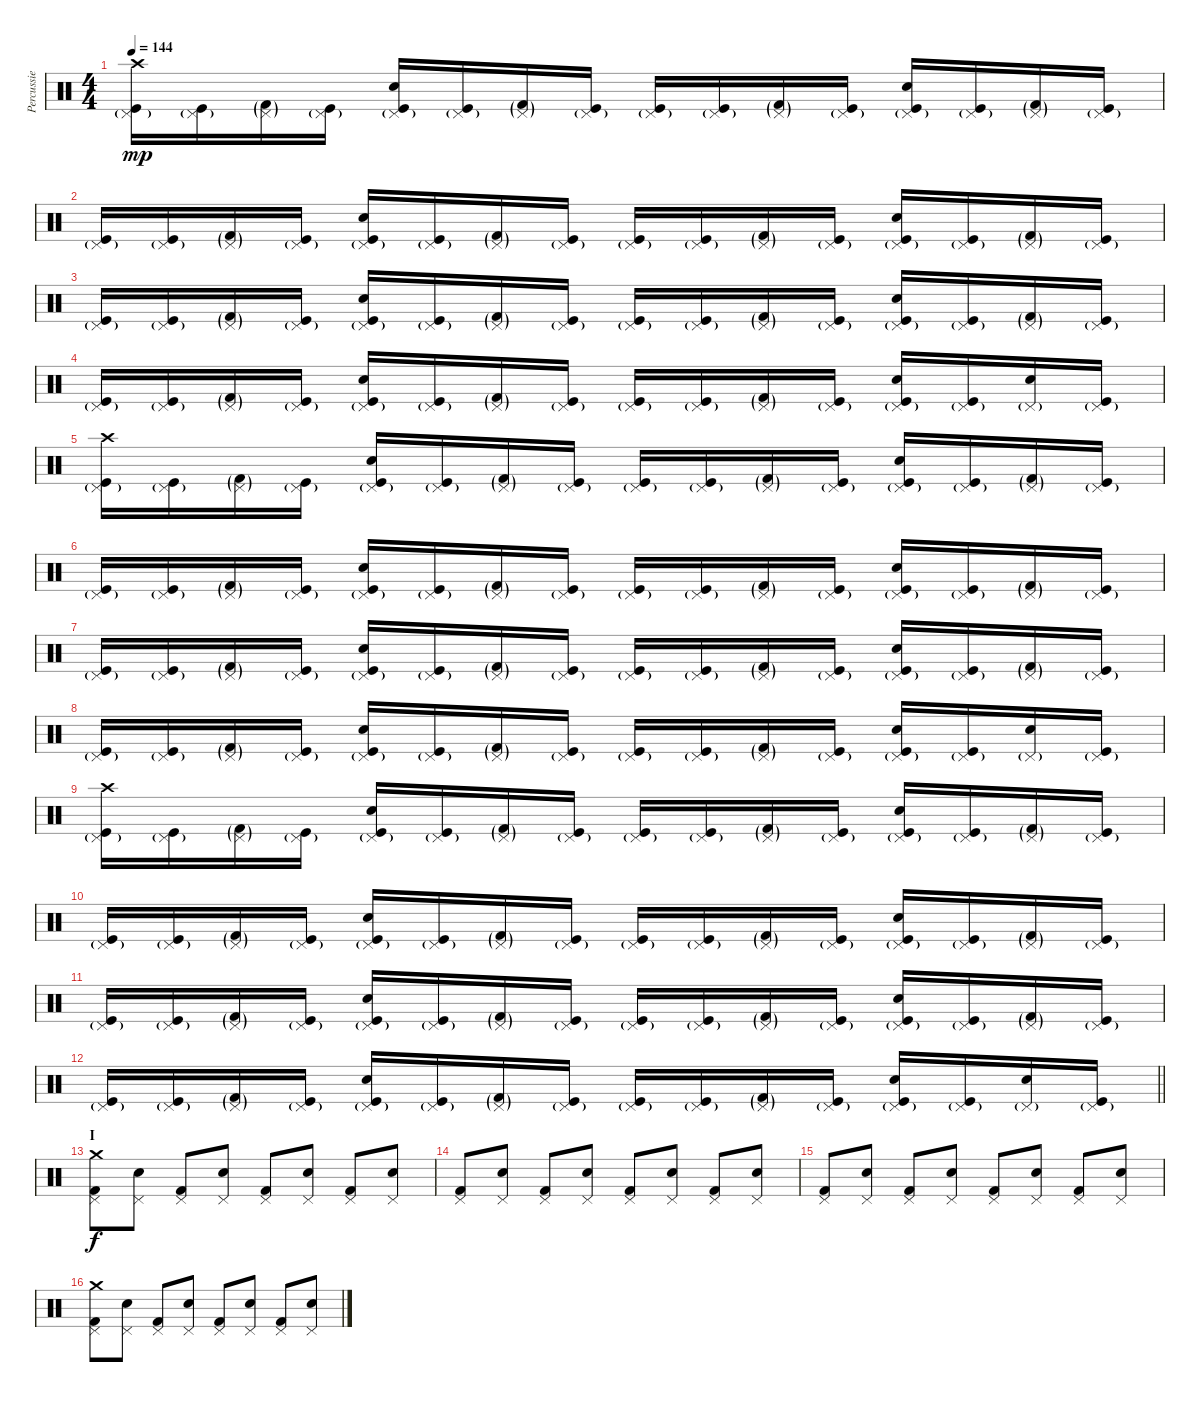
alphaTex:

\track ("Percussie" "Percussie") {instrument percussion}
\staff {score}
\articulation defaults
\ts (4 4)
\tempo 144
\clef neutral
\ks c
("Crash high (hit)" "Kick (hit)" "Pedal Hi-Hat (hit)"{g}).16{dy mp} ("Kick (hit)" "Pedal Hi-Hat (hit)"{g}).16 ("Kick (hit) 2"{g} "Pedal Hi-Hat (hit)"{g}).16 ("Kick (hit)" "Pedal Hi-Hat (hit)"{g}).16 ("Snare (hit) 2" "Kick (hit)" "Pedal Hi-Hat (hit)"{g}).16 ("Kick (hit)" "Pedal Hi-Hat (hit)"{g}).16 ("Kick (hit) 2"{g} "Pedal Hi-Hat (hit)"{g}).16 ("Kick (hit)" "Pedal Hi-Hat (hit)"{g}).16 ("Kick (hit)" "Pedal Hi-Hat (hit)"{g}).16 ("Kick (hit)" "Pedal Hi-Hat (hit)"{g}).16 ("Kick (hit) 2"{g} "Pedal Hi-Hat (hit)"{g}).16 ("Kick (hit)" "Pedal Hi-Hat (hit)"{g}).16 ("Snare (hit) 2" "Kick (hit)" "Pedal Hi-Hat (hit)"{g}).16 ("Kick (hit)" "Pedal Hi-Hat (hit)"{g}).16 ("Kick (hit) 2"{g} "Pedal Hi-Hat (hit)"{g}).16 ("Kick (hit)" "Pedal Hi-Hat (hit)"{g}).16 |
("Kick (hit)" "Pedal Hi-Hat (hit)"{g}).16 ("Kick (hit)" "Pedal Hi-Hat (hit)"{g}).16 ("Kick (hit) 2"{g} "Pedal Hi-Hat (hit)"{g}).16 ("Kick (hit)" "Pedal Hi-Hat (hit)"{g}).16 ("Snare (hit) 2" "Kick (hit)" "Pedal Hi-Hat (hit)"{g}).16 ("Kick (hit)" "Pedal Hi-Hat (hit)"{g}).16 ("Kick (hit) 2"{g} "Pedal Hi-Hat (hit)"{g}).16 ("Kick (hit)" "Pedal Hi-Hat (hit)"{g}).16 ("Kick (hit)" "Pedal Hi-Hat (hit)"{g}).16 ("Kick (hit)" "Pedal Hi-Hat (hit)"{g}).16 ("Kick (hit) 2"{g} "Pedal Hi-Hat (hit)"{g}).16 ("Kick (hit)" "Pedal Hi-Hat (hit)"{g}).16 ("Snare (hit) 2" "Kick (hit)" "Pedal Hi-Hat (hit)"{g}).16 ("Kick (hit)" "Pedal Hi-Hat (hit)"{g}).16 ("Kick (hit) 2"{g} "Pedal Hi-Hat (hit)"{g}).16 ("Kick (hit)" "Pedal Hi-Hat (hit)"{g}).16 |
("Kick (hit)" "Pedal Hi-Hat (hit)"{g}).16 ("Kick (hit)" "Pedal Hi-Hat (hit)"{g}).16 ("Kick (hit) 2"{g} "Pedal Hi-Hat (hit)"{g}).16 ("Kick (hit)" "Pedal Hi-Hat (hit)"{g}).16 ("Snare (hit) 2" "Kick (hit)" "Pedal Hi-Hat (hit)"{g}).16 ("Kick (hit)" "Pedal Hi-Hat (hit)"{g}).16 ("Kick (hit) 2"{g} "Pedal Hi-Hat (hit)"{g}).16 ("Kick (hit)" "Pedal Hi-Hat (hit)"{g}).16 ("Kick (hit)" "Pedal Hi-Hat (hit)"{g}).16 ("Kick (hit)" "Pedal Hi-Hat (hit)"{g}).16 ("Kick (hit) 2"{g} "Pedal Hi-Hat (hit)"{g}).16 ("Kick (hit)" "Pedal Hi-Hat (hit)"{g}).16 ("Snare (hit) 2" "Kick (hit)" "Pedal Hi-Hat (hit)"{g}).16 ("Kick (hit)" "Pedal Hi-Hat (hit)"{g}).16 ("Kick (hit) 2"{g} "Pedal Hi-Hat (hit)"{g}).16 ("Kick (hit)" "Pedal Hi-Hat (hit)"{g}).16 |
("Kick (hit)" "Pedal Hi-Hat (hit)"{g}).16 ("Kick (hit)" "Pedal Hi-Hat (hit)"{g}).16 ("Kick (hit) 2"{g} "Pedal Hi-Hat (hit)"{g}).16 ("Kick (hit)" "Pedal Hi-Hat (hit)"{g}).16 ("Snare (hit) 2" "Kick (hit)" "Pedal Hi-Hat (hit)"{g}).16 ("Kick (hit)" "Pedal Hi-Hat (hit)"{g}).16 ("Kick (hit) 2"{g} "Pedal Hi-Hat (hit)"{g}).16 ("Kick (hit)" "Pedal Hi-Hat (hit)"{g}).16 ("Kick (hit)" "Pedal Hi-Hat (hit)"{g}).16 ("Kick (hit)" "Pedal Hi-Hat (hit)"{g}).16 ("Kick (hit) 2"{g} "Pedal Hi-Hat (hit)"{g}).16 ("Kick (hit)" "Pedal Hi-Hat (hit)"{g}).16 ("Snare (hit) 2" "Kick (hit)" "Pedal Hi-Hat (hit)"{g}).16 ("Kick (hit)" "Pedal Hi-Hat (hit)"{g}).16 ("Snare (hit) 2" "Pedal Hi-Hat (hit)"{g}).16 ("Kick (hit)" "Pedal Hi-Hat (hit)"{g}).16 |
("Crash high (hit)" "Kick (hit)" "Pedal Hi-Hat (hit)"{g}).16 ("Kick (hit)" "Pedal Hi-Hat (hit)"{g}).16 ("Kick (hit) 2"{g} "Pedal Hi-Hat (hit)"{g}).16 ("Kick (hit)" "Pedal Hi-Hat (hit)"{g}).16 ("Snare (hit) 2" "Kick (hit)" "Pedal Hi-Hat (hit)"{g}).16 ("Kick (hit)" "Pedal Hi-Hat (hit)"{g}).16 ("Kick (hit) 2"{g} "Pedal Hi-Hat (hit)"{g}).16 ("Kick (hit)" "Pedal Hi-Hat (hit)"{g}).16 ("Kick (hit)" "Pedal Hi-Hat (hit)"{g}).16 ("Kick (hit)" "Pedal Hi-Hat (hit)"{g}).16 ("Kick (hit) 2"{g} "Pedal Hi-Hat (hit)"{g}).16 ("Kick (hit)" "Pedal Hi-Hat (hit)"{g}).16 ("Snare (hit) 2" "Kick (hit)" "Pedal Hi-Hat (hit)"{g}).16 ("Kick (hit)" "Pedal Hi-Hat (hit)"{g}).16 ("Kick (hit) 2"{g} "Pedal Hi-Hat (hit)"{g}).16 ("Kick (hit)" "Pedal Hi-Hat (hit)"{g}).16 |
("Kick (hit)" "Pedal Hi-Hat (hit)"{g}).16 ("Kick (hit)" "Pedal Hi-Hat (hit)"{g}).16 ("Kick (hit) 2"{g} "Pedal Hi-Hat (hit)"{g}).16 ("Kick (hit)" "Pedal Hi-Hat (hit)"{g}).16 ("Snare (hit) 2" "Kick (hit)" "Pedal Hi-Hat (hit)"{g}).16 ("Kick (hit)" "Pedal Hi-Hat (hit)"{g}).16 ("Kick (hit) 2"{g} "Pedal Hi-Hat (hit)"{g}).16 ("Kick (hit)" "Pedal Hi-Hat (hit)"{g}).16 ("Kick (hit)" "Pedal Hi-Hat (hit)"{g}).16 ("Kick (hit)" "Pedal Hi-Hat (hit)"{g}).16 ("Kick (hit) 2"{g} "Pedal Hi-Hat (hit)"{g}).16 ("Kick (hit)" "Pedal Hi-Hat (hit)"{g}).16 ("Snare (hit) 2" "Kick (hit)" "Pedal Hi-Hat (hit)"{g}).16 ("Kick (hit)" "Pedal Hi-Hat (hit)"{g}).16 ("Kick (hit) 2"{g} "Pedal Hi-Hat (hit)"{g}).16 ("Kick (hit)" "Pedal Hi-Hat (hit)"{g}).16 |
("Kick (hit)" "Pedal Hi-Hat (hit)"{g}).16 ("Kick (hit)" "Pedal Hi-Hat (hit)"{g}).16 ("Kick (hit) 2"{g} "Pedal Hi-Hat (hit)"{g}).16 ("Kick (hit)" "Pedal Hi-Hat (hit)"{g}).16 ("Snare (hit) 2" "Kick (hit)" "Pedal Hi-Hat (hit)"{g}).16 ("Kick (hit)" "Pedal Hi-Hat (hit)"{g}).16 ("Kick (hit) 2"{g} "Pedal Hi-Hat (hit)"{g}).16 ("Kick (hit)" "Pedal Hi-Hat (hit)"{g}).16 ("Kick (hit)" "Pedal Hi-Hat (hit)"{g}).16 ("Kick (hit)" "Pedal Hi-Hat (hit)"{g}).16 ("Kick (hit) 2"{g} "Pedal Hi-Hat (hit)"{g}).16 ("Kick (hit)" "Pedal Hi-Hat (hit)"{g}).16 ("Snare (hit) 2" "Kick (hit)" "Pedal Hi-Hat (hit)"{g}).16 ("Kick (hit)" "Pedal Hi-Hat (hit)"{g}).16 ("Kick (hit) 2"{g} "Pedal Hi-Hat (hit)"{g}).16 ("Kick (hit)" "Pedal Hi-Hat (hit)"{g}).16 |
("Kick (hit)" "Pedal Hi-Hat (hit)"{g}).16 ("Kick (hit)" "Pedal Hi-Hat (hit)"{g}).16 ("Kick (hit) 2"{g} "Pedal Hi-Hat (hit)"{g}).16 ("Kick (hit)" "Pedal Hi-Hat (hit)"{g}).16 ("Snare (hit) 2" "Kick (hit)" "Pedal Hi-Hat (hit)"{g}).16 ("Kick (hit)" "Pedal Hi-Hat (hit)"{g}).16 ("Kick (hit) 2"{g} "Pedal Hi-Hat (hit)"{g}).16 ("Kick (hit)" "Pedal Hi-Hat (hit)"{g}).16 ("Kick (hit)" "Pedal Hi-Hat (hit)"{g}).16 ("Kick (hit)" "Pedal Hi-Hat (hit)"{g}).16 ("Kick (hit) 2"{g} "Pedal Hi-Hat (hit)"{g}).16 ("Kick (hit)" "Pedal Hi-Hat (hit)"{g}).16 ("Snare (hit) 2" "Kick (hit)" "Pedal Hi-Hat (hit)"{g}).16 ("Kick (hit)" "Pedal Hi-Hat (hit)"{g}).16 ("Snare (hit) 2" "Pedal Hi-Hat (hit)"{g}).16 ("Kick (hit)" "Pedal Hi-Hat (hit)"{g}).16 |
("Crash high (hit)" "Kick (hit)" "Pedal Hi-Hat (hit)"{g}).16 ("Kick (hit)" "Pedal Hi-Hat (hit)"{g}).16 ("Kick (hit) 2"{g} "Pedal Hi-Hat (hit)"{g}).16 ("Kick (hit)" "Pedal Hi-Hat (hit)"{g}).16 ("Snare (hit) 2" "Kick (hit)" "Pedal Hi-Hat (hit)"{g}).16 ("Kick (hit)" "Pedal Hi-Hat (hit)"{g}).16 ("Kick (hit) 2"{g} "Pedal Hi-Hat (hit)"{g}).16 ("Kick (hit)" "Pedal Hi-Hat (hit)"{g}).16 ("Kick (hit)" "Pedal Hi-Hat (hit)"{g}).16 ("Kick (hit)" "Pedal Hi-Hat (hit)"{g}).16 ("Kick (hit) 2"{g} "Pedal Hi-Hat (hit)"{g}).16 ("Kick (hit)" "Pedal Hi-Hat (hit)"{g}).16 ("Snare (hit) 2" "Kick (hit)" "Pedal Hi-Hat (hit)"{g}).16 ("Kick (hit)" "Pedal Hi-Hat (hit)"{g}).16 ("Kick (hit) 2"{g} "Pedal Hi-Hat (hit)"{g}).16 ("Kick (hit)" "Pedal Hi-Hat (hit)"{g}).16 |
("Kick (hit)" "Pedal Hi-Hat (hit)"{g}).16 ("Kick (hit)" "Pedal Hi-Hat (hit)"{g}).16 ("Kick (hit) 2"{g} "Pedal Hi-Hat (hit)"{g}).16 ("Kick (hit)" "Pedal Hi-Hat (hit)"{g}).16 ("Snare (hit) 2" "Kick (hit)" "Pedal Hi-Hat (hit)"{g}).16 ("Kick (hit)" "Pedal Hi-Hat (hit)"{g}).16 ("Kick (hit) 2"{g} "Pedal Hi-Hat (hit)"{g}).16 ("Kick (hit)" "Pedal Hi-Hat (hit)"{g}).16 ("Kick (hit)" "Pedal Hi-Hat (hit)"{g}).16 ("Kick (hit)" "Pedal Hi-Hat (hit)"{g}).16 ("Kick (hit) 2"{g} "Pedal Hi-Hat (hit)"{g}).16 ("Kick (hit)" "Pedal Hi-Hat (hit)"{g}).16 ("Snare (hit) 2" "Kick (hit)" "Pedal Hi-Hat (hit)"{g}).16 ("Kick (hit)" "Pedal Hi-Hat (hit)"{g}).16 ("Kick (hit) 2"{g} "Pedal Hi-Hat (hit)"{g}).16 ("Kick (hit)" "Pedal Hi-Hat (hit)"{g}).16 |
("Kick (hit)" "Pedal Hi-Hat (hit)"{g}).16 ("Kick (hit)" "Pedal Hi-Hat (hit)"{g}).16 ("Kick (hit) 2"{g} "Pedal Hi-Hat (hit)"{g}).16 ("Kick (hit)" "Pedal Hi-Hat (hit)"{g}).16 ("Snare (hit) 2" "Kick (hit)" "Pedal Hi-Hat (hit)"{g}).16 ("Kick (hit)" "Pedal Hi-Hat (hit)"{g}).16 ("Kick (hit) 2"{g} "Pedal Hi-Hat (hit)"{g}).16 ("Kick (hit)" "Pedal Hi-Hat (hit)"{g}).16 ("Kick (hit)" "Pedal Hi-Hat (hit)"{g}).16 ("Kick (hit)" "Pedal Hi-Hat (hit)"{g}).16 ("Kick (hit) 2"{g} "Pedal Hi-Hat (hit)"{g}).16 ("Kick (hit)" "Pedal Hi-Hat (hit)"{g}).16 ("Snare (hit) 2" "Kick (hit)" "Pedal Hi-Hat (hit)"{g}).16 ("Kick (hit)" "Pedal Hi-Hat (hit)"{g}).16 ("Kick (hit) 2"{g} "Pedal Hi-Hat (hit)"{g}).16 ("Kick (hit)" "Pedal Hi-Hat (hit)"{g}).16 |
\barLineRight lightlight
("Kick (hit)" "Pedal Hi-Hat (hit)"{g}).16 ("Kick (hit)" "Pedal Hi-Hat (hit)"{g}).16 ("Kick (hit) 2"{g} "Pedal Hi-Hat (hit)"{g}).16 ("Kick (hit)" "Pedal Hi-Hat (hit)"{g}).16 ("Snare (hit) 2" "Kick (hit)" "Pedal Hi-Hat (hit)"{g}).16 ("Kick (hit)" "Pedal Hi-Hat (hit)"{g}).16 ("Kick (hit) 2"{g} "Pedal Hi-Hat (hit)"{g}).16 ("Kick (hit)" "Pedal Hi-Hat (hit)"{g}).16 ("Kick (hit)" "Pedal Hi-Hat (hit)"{g}).16 ("Kick (hit)" "Pedal Hi-Hat (hit)"{g}).16 ("Kick (hit) 2"{g} "Pedal Hi-Hat (hit)"{g}).16 ("Kick (hit)" "Pedal Hi-Hat (hit)"{g}).16 ("Snare (hit) 2" "Kick (hit)" "Pedal Hi-Hat (hit)"{g}).16 ("Kick (hit)" "Pedal Hi-Hat (hit)"{g}).16 ("Snare (hit) 2" "Pedal Hi-Hat (hit)"{g}).16 ("Kick (hit)" "Pedal Hi-Hat (hit)"{g}).16 |
\section ("" "I")
("Crash medium (hit)" "Kick (hit) 2" "Pedal Hi-Hat (hit)").8{dy f} ("Electric Snare (hit)" "Pedal Hi-Hat (hit)").8 ("Kick (hit) 2" "Pedal Hi-Hat (hit)").8 ("Electric Snare (hit)" "Pedal Hi-Hat (hit)").8 ("Kick (hit) 2" "Pedal Hi-Hat (hit)").8 ("Electric Snare (hit)" "Pedal Hi-Hat (hit)").8 ("Kick (hit) 2" "Pedal Hi-Hat (hit)").8 ("Electric Snare (hit)" "Pedal Hi-Hat (hit)").8 |
("Kick (hit) 2" "Pedal Hi-Hat (hit)").8 ("Electric Snare (hit)" "Pedal Hi-Hat (hit)").8 ("Kick (hit) 2" "Pedal Hi-Hat (hit)").8 ("Electric Snare (hit)" "Pedal Hi-Hat (hit)").8 ("Kick (hit) 2" "Pedal Hi-Hat (hit)").8 ("Electric Snare (hit)" "Pedal Hi-Hat (hit)").8 ("Kick (hit) 2" "Pedal Hi-Hat (hit)").8 ("Electric Snare (hit)" "Pedal Hi-Hat (hit)").8 |
("Kick (hit) 2" "Pedal Hi-Hat (hit)").8 ("Electric Snare (hit)" "Pedal Hi-Hat (hit)").8 ("Kick (hit) 2" "Pedal Hi-Hat (hit)").8 ("Electric Snare (hit)" "Pedal Hi-Hat (hit)").8 ("Kick (hit) 2" "Pedal Hi-Hat (hit)").8 ("Electric Snare (hit)" "Pedal Hi-Hat (hit)").8 ("Kick (hit) 2" "Pedal Hi-Hat (hit)").8 ("Electric Snare (hit)" "Pedal Hi-Hat (hit)").8 |
("Crash medium (hit)" "Kick (hit) 2" "Pedal Hi-Hat (hit)").8 ("Electric Snare (hit)" "Pedal Hi-Hat (hit)").8 ("Kick (hit) 2" "Pedal Hi-Hat (hit)").8 ("Electric Snare (hit)" "Pedal Hi-Hat (hit)").8 ("Kick (hit) 2" "Pedal Hi-Hat (hit)").8 ("Electric Snare (hit)" "Pedal Hi-Hat (hit)").8 ("Kick (hit) 2" "Pedal Hi-Hat (hit)").8 ("Electric Snare (hit)" "Pedal Hi-Hat (hit)").8
